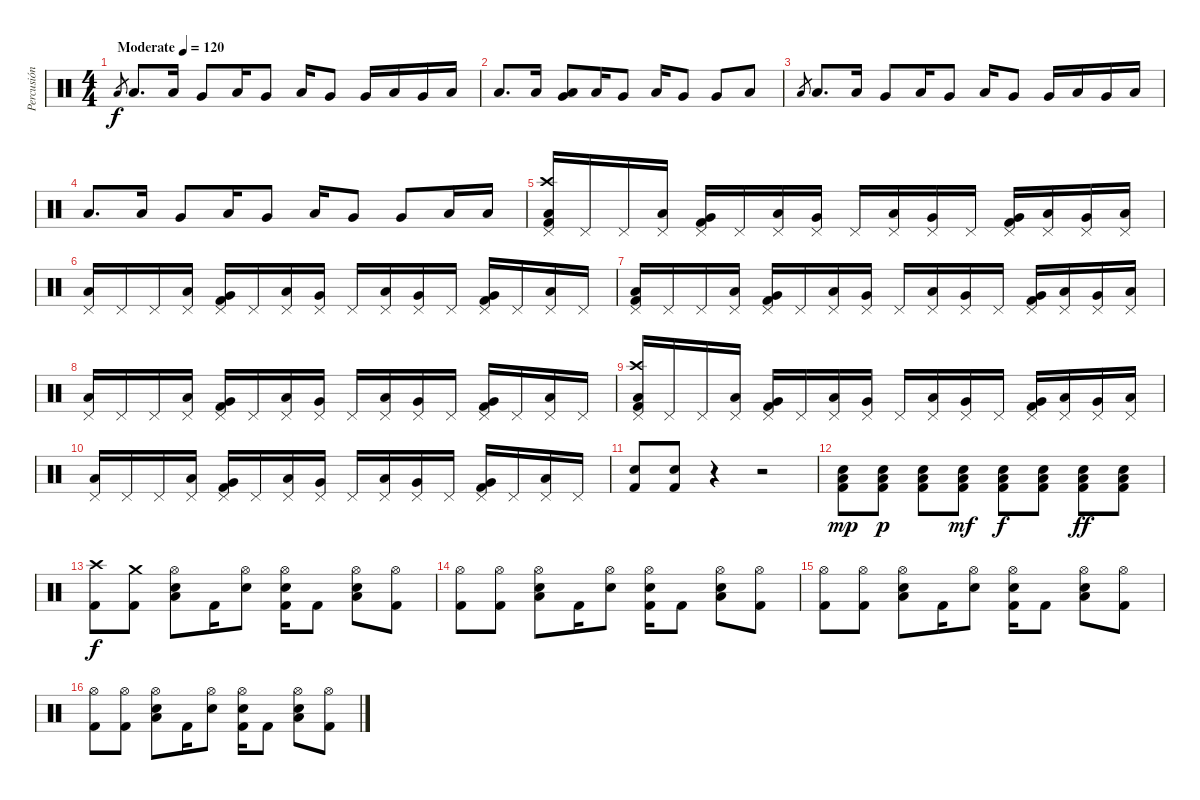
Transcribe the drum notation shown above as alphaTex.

\track ("Percusión" "Percusión") {instrument percussion}
\staff {score}
\articulation defaults
\ts (4 4)
\tempo (120 "Moderate")
\clef neutral
\ks c "Low Floor Tom (hit)".8{gr dy f} "Low Floor Tom (hit)".8{d} "Low Floor Tom (hit)".16 "Very Low Tom (hit)".8 "Low Floor Tom (hit)".16 "Very Low Tom (hit)".8 "Low Floor Tom (hit)".16 "Very Low Tom (hit)".8 "Very Low Tom (hit)".16 "Low Floor Tom (hit)".16 "Very Low Tom (hit)".16 "Low Floor Tom (hit)".16
|
"Low Floor Tom (hit)".8{d} "Low Floor Tom (hit)".16 ("Low Tom (hit)" "Very Low Tom (hit)").8 "Low Floor Tom (hit)".16 "Very Low Tom (hit)".8 "Low Floor Tom (hit)".16 "Very Low Tom (hit)".8 "Very Low Tom (hit)".8 "Low Floor Tom (hit)".8 |
"Low Floor Tom (hit)".8{gr} "Low Floor Tom (hit)".8{d} "Low Floor Tom (hit)".16 "Very Low Tom (hit)".8 "Low Floor Tom (hit)".16 "Very Low Tom (hit)".8 "Low Floor Tom (hit)".16 "Very Low Tom (hit)".8 "Very Low Tom (hit)".16 "Low Floor Tom (hit)".16 "Very Low Tom (hit)".16 "Low Floor Tom (hit)".16 |
"Low Floor Tom (hit)".8{d} "Low Floor Tom (hit)".16 "Very Low Tom (hit)".8 "Low Floor Tom (hit)".16 "Very Low Tom (hit)".8 "Low Floor Tom (hit)".16 "Very Low Tom (hit)".8 "Very Low Tom (hit)".8 "Low Floor Tom (hit)".16 "Low Floor Tom (hit)".16 |
("Crash high (hit)" "Pedal Hi-Hat (hit)" "Low Floor Tom (hit)" "Kick (hit) 2").16 "Pedal Hi-Hat (hit)".16 "Pedal Hi-Hat (hit)".16 ("Pedal Hi-Hat (hit)" "Low Floor Tom (hit)").16 ("Pedal Hi-Hat (hit)" "Very Low Tom (hit)" "Kick (hit) 2").16 "Pedal Hi-Hat (hit)".16 ("Pedal Hi-Hat (hit)" "Low Floor Tom (hit)").16 ("Pedal Hi-Hat (hit)" "Very Low Tom (hit)").16 "Pedal Hi-Hat (hit)".16 ("Pedal Hi-Hat (hit)" "Low Floor Tom (hit)").16 ("Pedal Hi-Hat (hit)" "Very Low Tom (hit)").16 "Pedal Hi-Hat (hit)".16 ("Pedal Hi-Hat (hit)" "Very Low Tom (hit)" "Kick (hit) 2").16 ("Pedal Hi-Hat (hit)" "Low Floor Tom (hit)").16 ("Pedal Hi-Hat (hit)" "Very Low Tom (hit)").16 ("Pedal Hi-Hat (hit)" "Low Floor Tom (hit)").16 |
("Pedal Hi-Hat (hit)" "Low Floor Tom (hit)").16 "Pedal Hi-Hat (hit)".16 "Pedal Hi-Hat (hit)".16 ("Pedal Hi-Hat (hit)" "Low Floor Tom (hit)").16 ("Pedal Hi-Hat (hit)" "Very Low Tom (hit)" "Kick (hit) 2").16 "Pedal Hi-Hat (hit)".16 ("Pedal Hi-Hat (hit)" "Low Floor Tom (hit)").16 ("Pedal Hi-Hat (hit)" "Very Low Tom (hit)").16 "Pedal Hi-Hat (hit)".16 ("Pedal Hi-Hat (hit)" "Low Floor Tom (hit)").16 ("Pedal Hi-Hat (hit)" "Very Low Tom (hit)").16 "Pedal Hi-Hat (hit)".16 ("Pedal Hi-Hat (hit)" "Very Low Tom (hit)" "Kick (hit) 2").16 "Pedal Hi-Hat (hit)".16 ("Pedal Hi-Hat (hit)" "Low Floor Tom (hit)").16 "Pedal Hi-Hat (hit)".16 |
("Pedal Hi-Hat (hit)" "Low Floor Tom (hit)" "Kick (hit) 2").16 "Pedal Hi-Hat (hit)".16 "Pedal Hi-Hat (hit)".16 ("Pedal Hi-Hat (hit)" "Low Floor Tom (hit)").16 ("Pedal Hi-Hat (hit)" "Very Low Tom (hit)" "Kick (hit) 2").16 "Pedal Hi-Hat (hit)".16 ("Pedal Hi-Hat (hit)" "Low Floor Tom (hit)").16 ("Pedal Hi-Hat (hit)" "Very Low Tom (hit)").16 "Pedal Hi-Hat (hit)".16 ("Pedal Hi-Hat (hit)" "Low Floor Tom (hit)").16 ("Pedal Hi-Hat (hit)" "Very Low Tom (hit)").16 "Pedal Hi-Hat (hit)".16 ("Pedal Hi-Hat (hit)" "Very Low Tom (hit)" "Kick (hit) 2").16 ("Pedal Hi-Hat (hit)" "Low Floor Tom (hit)").16 ("Pedal Hi-Hat (hit)" "Very Low Tom (hit)").16 ("Pedal Hi-Hat (hit)" "Low Floor Tom (hit)").16 |
("Pedal Hi-Hat (hit)" "Low Floor Tom (hit)").16 "Pedal Hi-Hat (hit)".16 "Pedal Hi-Hat (hit)".16 ("Pedal Hi-Hat (hit)" "Low Floor Tom (hit)").16 ("Pedal Hi-Hat (hit)" "Very Low Tom (hit)" "Kick (hit) 2").16 "Pedal Hi-Hat (hit)".16 ("Pedal Hi-Hat (hit)" "Low Floor Tom (hit)").16 ("Pedal Hi-Hat (hit)" "Very Low Tom (hit)").16 "Pedal Hi-Hat (hit)".16 ("Pedal Hi-Hat (hit)" "Low Floor Tom (hit)").16 ("Pedal Hi-Hat (hit)" "Very Low Tom (hit)").16 "Pedal Hi-Hat (hit)".16 ("Pedal Hi-Hat (hit)" "Very Low Tom (hit)" "Kick (hit) 2").16 "Pedal Hi-Hat (hit)".16 ("Pedal Hi-Hat (hit)" "Low Floor Tom (hit)").16 "Pedal Hi-Hat (hit)".16 |
("Crash high (hit)" "Pedal Hi-Hat (hit)" "Low Floor Tom (hit)" "Kick (hit) 2").16 "Pedal Hi-Hat (hit)".16 "Pedal Hi-Hat (hit)".16 ("Pedal Hi-Hat (hit)" "Low Floor Tom (hit)").16 ("Pedal Hi-Hat (hit)" "Very Low Tom (hit)" "Kick (hit) 2").16 "Pedal Hi-Hat (hit)".16 ("Pedal Hi-Hat (hit)" "Low Floor Tom (hit)").16 ("Pedal Hi-Hat (hit)" "Very Low Tom (hit)").16 "Pedal Hi-Hat (hit)".16 ("Pedal Hi-Hat (hit)" "Low Floor Tom (hit)").16 ("Pedal Hi-Hat (hit)" "Very Low Tom (hit)").16 "Pedal Hi-Hat (hit)".16 ("Pedal Hi-Hat (hit)" "Very Low Tom (hit)" "Kick (hit) 2").16 ("Pedal Hi-Hat (hit)" "Low Floor Tom (hit)").16 ("Pedal Hi-Hat (hit)" "Very Low Tom (hit)").16 ("Pedal Hi-Hat (hit)" "Low Floor Tom (hit)").16 |
("Pedal Hi-Hat (hit)" "Low Floor Tom (hit)").16 "Pedal Hi-Hat (hit)".16 "Pedal Hi-Hat (hit)".16 ("Pedal Hi-Hat (hit)" "Low Floor Tom (hit)").16 ("Pedal Hi-Hat (hit)" "Very Low Tom (hit)" "Kick (hit) 2").16 "Pedal Hi-Hat (hit)".16 ("Pedal Hi-Hat (hit)" "Low Floor Tom (hit)").16 ("Pedal Hi-Hat (hit)" "Very Low Tom (hit)").16 "Pedal Hi-Hat (hit)".16 ("Pedal Hi-Hat (hit)" "Low Floor Tom (hit)").16 ("Pedal Hi-Hat (hit)" "Very Low Tom (hit)").16 "Pedal Hi-Hat (hit)".16 ("Pedal Hi-Hat (hit)" "Very Low Tom (hit)" "Kick (hit) 2").16 "Pedal Hi-Hat (hit)".16 ("Pedal Hi-Hat (hit)" "Low Floor Tom (hit)").16 "Pedal Hi-Hat (hit)".16 |
("Electric Snare (hit)" "Kick (hit) 2").8 ("Electric Snare (hit)" "Kick (hit) 2").8 r.4 r.2 |
("Electric Snare (hit)" "Low Floor Tom (hit)" "Kick (hit) 2").8{dy mp} ("Electric Snare (hit)" "Low Floor Tom (hit)" "Kick (hit) 2").8{dy p} ("Electric Snare (hit)" "Low Floor Tom (hit)" "Kick (hit) 2").8 ("Electric Snare (hit)" "Low Floor Tom (hit)" "Kick (hit) 2").8{dy mf} ("Electric Snare (hit)" "Low Floor Tom (hit)" "Kick (hit) 2").8{dy f} ("Electric Snare (hit)" "Low Floor Tom (hit)" "Kick (hit) 2").8 ("Electric Snare (hit)" "Low Floor Tom (hit)" "Kick (hit) 2").8{dy ff} ("Electric Snare (hit)" "Low Floor Tom (hit)" "Kick (hit) 2").8 |
("Crash high (hit)" "Kick (hit) 2").8{dy f} ("Crash medium (hit)" "Kick (hit) 2").8 ("Hi-Hat (open)" "Electric Snare (hit)" "Low Floor Tom (hit)").8 "Kick (hit) 2".16 ("Hi-Hat (open)" "Electric Snare (hit)").8 ("Hi-Hat (open)" "Electric Snare (hit)" "Kick (hit) 2").16 "Kick (hit) 2".8 ("Hi-Hat (open)" "Electric Snare (hit)" "Low Floor Tom (hit)").8 ("Hi-Hat (open)" "Kick (hit) 2").8 |
("Hi-Hat (open)" "Kick (hit) 2").8 ("Hi-Hat (open)" "Kick (hit) 2").8 ("Hi-Hat (open)" "Electric Snare (hit)" "Low Floor Tom (hit)").8 "Kick (hit) 2".16 ("Hi-Hat (open)" "Electric Snare (hit)").8 ("Hi-Hat (open)" "Electric Snare (hit)" "Kick (hit) 2").16 "Kick (hit) 2".8 ("Hi-Hat (open)" "Electric Snare (hit)" "Low Floor Tom (hit)").8 ("Hi-Hat (open)" "Kick (hit) 2").8 |
("Hi-Hat (open)" "Kick (hit) 2").8 ("Hi-Hat (open)" "Kick (hit) 2").8 ("Hi-Hat (open)" "Electric Snare (hit)" "Low Floor Tom (hit)").8 "Kick (hit) 2".16 ("Hi-Hat (open)" "Electric Snare (hit)").8 ("Hi-Hat (open)" "Electric Snare (hit)" "Kick (hit) 2").16 "Kick (hit) 2".8 ("Hi-Hat (open)" "Electric Snare (hit)" "Low Floor Tom (hit)").8 ("Hi-Hat (open)" "Kick (hit) 2").8 |
("Hi-Hat (open)" "Kick (hit) 2").8 ("Hi-Hat (open)" "Kick (hit) 2").8 ("Hi-Hat (open)" "Electric Snare (hit)" "Low Floor Tom (hit)").8 "Kick (hit) 2".16 ("Hi-Hat (open)" "Electric Snare (hit)").8 ("Hi-Hat (open)" "Electric Snare (hit)" "Kick (hit) 2").16 "Kick (hit) 2".8 ("Hi-Hat (open)" "Electric Snare (hit)" "Low Floor Tom (hit)").8 ("Hi-Hat (open)" "Kick (hit) 2").8
